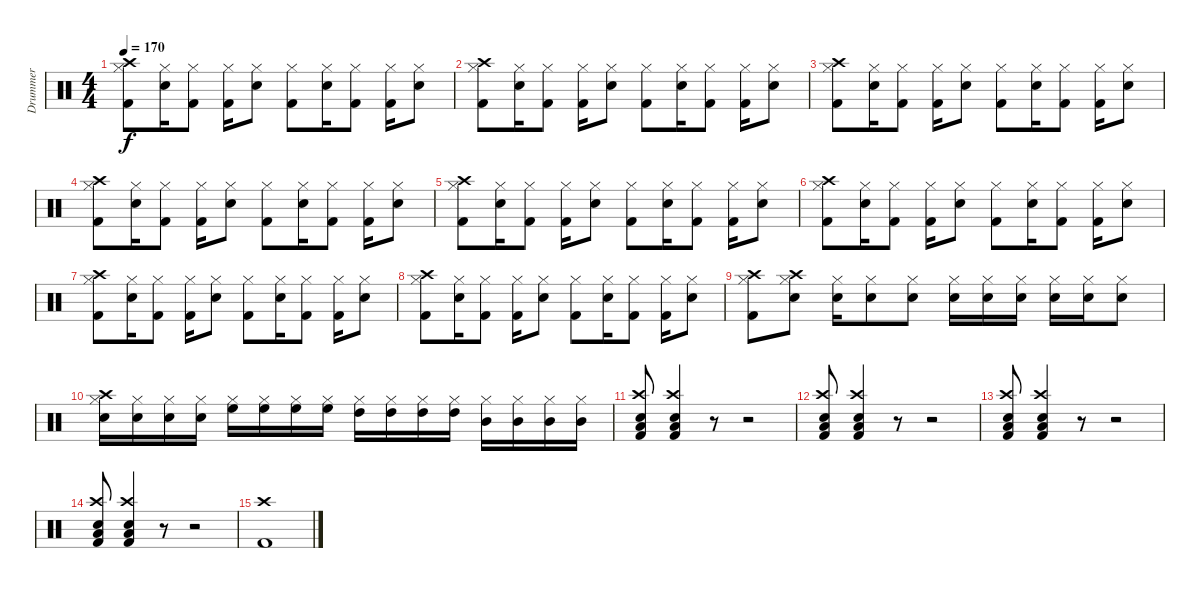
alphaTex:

\track ("Drummer" "Drummer") {instrument percussion}
\staff {score}
\articulation defaults
\ts (4 4)
\tempo 170
\clef neutral
\ks c
("Kick (hit) 2" "Hi-Hat (closed)" "Crash high (hit)").8{dy f} ("Electric Snare (hit)" "Hi-Hat (closed)").16 ("Kick (hit) 2" "Hi-Hat (closed)").8 ("Kick (hit) 2" "Hi-Hat (closed)").16 ("Electric Snare (hit)" "Hi-Hat (closed)").8 ("Kick (hit) 2" "Hi-Hat (closed)").8 ("Electric Snare (hit)" "Hi-Hat (closed)").16 ("Kick (hit) 2" "Hi-Hat (closed)").8 ("Kick (hit) 2" "Hi-Hat (closed)").16 ("Electric Snare (hit)" "Hi-Hat (closed)").8 |
("Kick (hit) 2" "Hi-Hat (closed)" "Crash high (hit)").8 ("Electric Snare (hit)" "Hi-Hat (closed)").16 ("Kick (hit) 2" "Hi-Hat (closed)").8 ("Kick (hit) 2" "Hi-Hat (closed)").16 ("Electric Snare (hit)" "Hi-Hat (closed)").8 ("Kick (hit) 2" "Hi-Hat (closed)").8 ("Electric Snare (hit)" "Hi-Hat (closed)").16 ("Kick (hit) 2" "Hi-Hat (closed)").8 ("Kick (hit) 2" "Hi-Hat (closed)").16 ("Electric Snare (hit)" "Hi-Hat (closed)").8 |
("Kick (hit) 2" "Hi-Hat (closed)" "Crash high (hit)").8 ("Electric Snare (hit)" "Hi-Hat (closed)").16 ("Kick (hit) 2" "Hi-Hat (closed)").8 ("Kick (hit) 2" "Hi-Hat (closed)").16 ("Electric Snare (hit)" "Hi-Hat (closed)").8 ("Kick (hit) 2" "Hi-Hat (closed)").8 ("Electric Snare (hit)" "Hi-Hat (closed)").16 ("Kick (hit) 2" "Hi-Hat (closed)").8 ("Kick (hit) 2" "Hi-Hat (closed)").16 ("Electric Snare (hit)" "Hi-Hat (closed)").8 |
("Kick (hit) 2" "Hi-Hat (closed)" "Crash high (hit)").8 ("Electric Snare (hit)" "Hi-Hat (closed)").16 ("Kick (hit) 2" "Hi-Hat (closed)").8 ("Kick (hit) 2" "Hi-Hat (closed)").16 ("Electric Snare (hit)" "Hi-Hat (closed)").8 ("Kick (hit) 2" "Hi-Hat (closed)").8 ("Electric Snare (hit)" "Hi-Hat (closed)").16 ("Kick (hit) 2" "Hi-Hat (closed)").8 ("Kick (hit) 2" "Hi-Hat (closed)").16 ("Electric Snare (hit)" "Hi-Hat (closed)").8 |
("Kick (hit) 2" "Hi-Hat (closed)" "Crash high (hit)").8 ("Electric Snare (hit)" "Hi-Hat (closed)").16 ("Kick (hit) 2" "Hi-Hat (closed)").8 ("Kick (hit) 2" "Hi-Hat (closed)").16 ("Electric Snare (hit)" "Hi-Hat (closed)").8 ("Kick (hit) 2" "Hi-Hat (closed)").8 ("Electric Snare (hit)" "Hi-Hat (closed)").16 ("Kick (hit) 2" "Hi-Hat (closed)").8 ("Kick (hit) 2" "Hi-Hat (closed)").16 ("Electric Snare (hit)" "Hi-Hat (closed)").8 |
("Kick (hit) 2" "Hi-Hat (closed)" "Crash high (hit)").8 ("Electric Snare (hit)" "Hi-Hat (closed)").16 ("Kick (hit) 2" "Hi-Hat (closed)").8 ("Kick (hit) 2" "Hi-Hat (closed)").16 ("Electric Snare (hit)" "Hi-Hat (closed)").8 ("Kick (hit) 2" "Hi-Hat (closed)").8 ("Electric Snare (hit)" "Hi-Hat (closed)").16 ("Kick (hit) 2" "Hi-Hat (closed)").8 ("Kick (hit) 2" "Hi-Hat (closed)").16 ("Electric Snare (hit)" "Hi-Hat (closed)").8 |
("Kick (hit) 2" "Hi-Hat (closed)" "Crash high (hit)").8 ("Electric Snare (hit)" "Hi-Hat (closed)").16 ("Kick (hit) 2" "Hi-Hat (closed)").8 ("Kick (hit) 2" "Hi-Hat (closed)").16 ("Electric Snare (hit)" "Hi-Hat (closed)").8 ("Kick (hit) 2" "Hi-Hat (closed)").8 ("Electric Snare (hit)" "Hi-Hat (closed)").16 ("Kick (hit) 2" "Hi-Hat (closed)").8 ("Kick (hit) 2" "Hi-Hat (closed)").16 ("Electric Snare (hit)" "Hi-Hat (closed)").8 |
("Kick (hit) 2" "Hi-Hat (closed)" "Crash high (hit)").8 ("Electric Snare (hit)" "Hi-Hat (closed)").16 ("Kick (hit) 2" "Hi-Hat (closed)").8 ("Kick (hit) 2" "Hi-Hat (closed)").16 ("Electric Snare (hit)" "Hi-Hat (closed)").8 ("Kick (hit) 2" "Hi-Hat (closed)").8 ("Electric Snare (hit)" "Hi-Hat (closed)").16 ("Kick (hit) 2" "Hi-Hat (closed)").8 ("Kick (hit) 2" "Hi-Hat (closed)").16 ("Electric Snare (hit)" "Hi-Hat (closed)").8 |
("Kick (hit) 2" "Hi-Hat (closed)" "Crash high (hit)").8 ("Snare (hit) 2" "Hi-Hat (closed)" "Crash high (hit)").8 ("Electric Snare (hit)" "Hi-Hat (closed)").16 ("Electric Snare (hit)" "Hi-Hat (closed)").8 ("Electric Snare (hit)" "Hi-Hat (closed)").8 ("Electric Snare (hit)" "Hi-Hat (closed)").16 ("Electric Snare (hit)" "Hi-Hat (closed)").16 ("Electric Snare (hit)" "Hi-Hat (closed)").16 ("Electric Snare (hit)" "Hi-Hat (closed)").16 ("Electric Snare (hit)" "Hi-Hat (closed)").16 ("Electric Snare (hit)" "Hi-Hat (closed)").8 |
("Electric Snare (hit)" "Hi-Hat (closed)" "Crash high (hit)").16 ("Electric Snare (hit)" "Hi-Hat (closed)").16 ("Electric Snare (hit)" "Hi-Hat (closed)").16 ("Electric Snare (hit)" "Hi-Hat (closed)").16 ("High Floor Tom (hit)" "Hi-Hat (closed)").16 ("High Floor Tom (hit)" "Hi-Hat (closed)").16 ("High Floor Tom (hit)" "Hi-Hat (closed)").16 ("High Floor Tom (hit)" "Hi-Hat (closed)").16 ("High Tom (hit)" "Hi-Hat (closed)").16 ("High Tom (hit)" "Hi-Hat (closed)").16 ("High Tom (hit)" "Hi-Hat (closed)").16 ("High Tom (hit)" "Hi-Hat (closed)").16 ("Mid Tom (hit)" "Hi-Hat (closed)").16 ("Mid Tom (hit)" "Hi-Hat (closed)").16 ("Mid Tom (hit)" "Hi-Hat (closed)").16 ("Mid Tom (hit)" "Hi-Hat (closed)").16 |
("Kick (hit) 2" "Low Tom (hit)" "Snare (hit) 2" "Crash high (hit)").8 ("Kick (hit) 2" "Low Tom (hit)" "Snare (hit) 2" "Crash high (hit)").4 r.8 r.2 |
("Kick (hit) 2" "Low Tom (hit)" "Snare (hit) 2" "Crash high (hit)").8 ("Kick (hit) 2" "Low Tom (hit)" "Snare (hit) 2" "Crash high (hit)").4 r.8 r.2 |
("Kick (hit) 2" "Low Tom (hit)" "Snare (hit) 2" "Crash high (hit)").8 ("Kick (hit) 2" "Low Tom (hit)" "Snare (hit) 2" "Crash high (hit)").4 r.8 r.2 |
("Kick (hit) 2" "Low Tom (hit)" "Snare (hit) 2" "Crash high (hit)").8 ("Kick (hit) 2" "Low Tom (hit)" "Snare (hit) 2" "Crash high (hit)").4 r.8 r.2 |
("Kick (hit) 2" "Crash high (hit)").1
